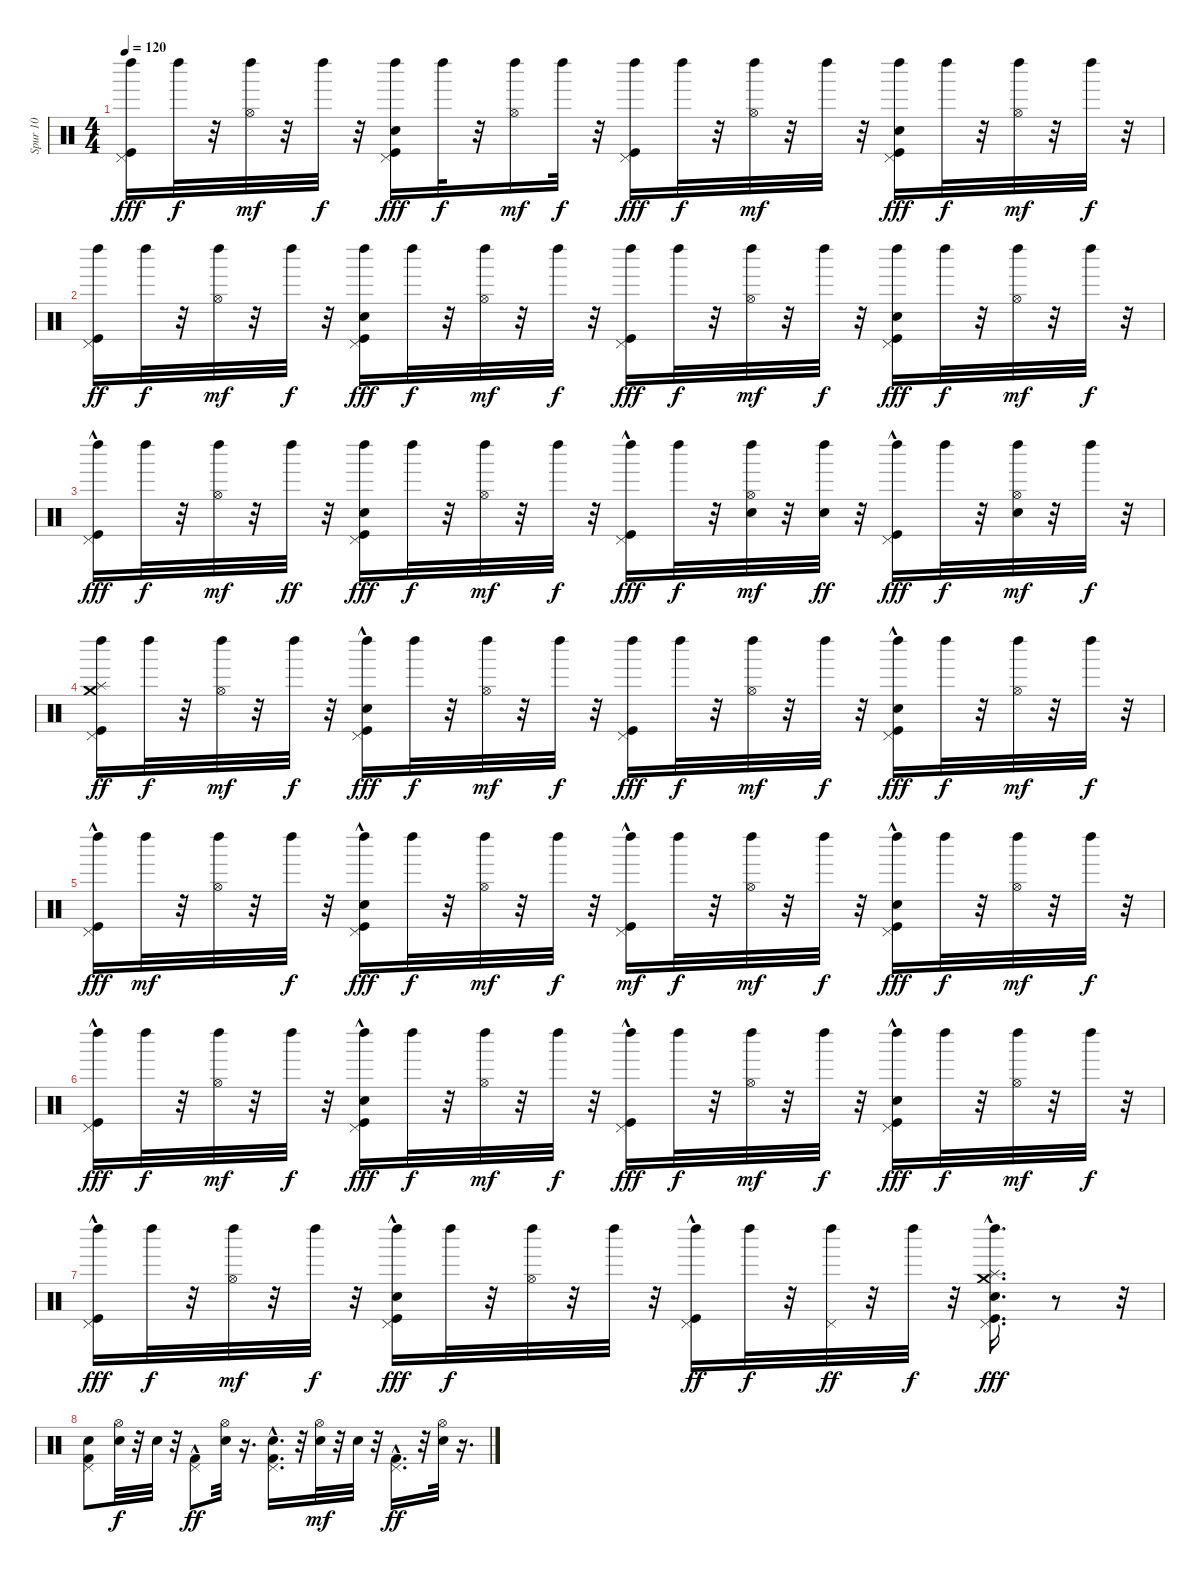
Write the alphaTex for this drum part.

\track ("Spur 10" "Spur 10") {instrument percussion}
\staff {score}
\articulation defaults
\ts (4 4)
\tempo 120
\clef neutral
\ks c
("Kick (hit)" "Pedal Hi-Hat (hit)" "Left Maraca (hit)").16{dy fff} "Left Maraca (hit)".32{dy f} r.32 ("Hi-Hat (open)" "Left Maraca (hit)").32{dy mf} r.32 "Left Maraca (hit)".32{dy f} r.32 ("Snare (hit) 2" "Kick (hit)" "Pedal Hi-Hat (hit)" "Left Maraca (hit)").16{dy fff} "Left Maraca (hit)".32{dy f} r.32 ("Hi-Hat (open)" "Left Maraca (hit)").16{dy mf} "Left Maraca (hit)".32{dy f} r.32 ("Kick (hit)" "Pedal Hi-Hat (hit)" "Left Maraca (hit)").16{dy fff} "Left Maraca (hit)".32{dy f} r.32 ("Hi-Hat (open)" "Left Maraca (hit)").32{dy mf} r.32 "Left Maraca (hit)".32 r.32 ("Snare (hit) 2" "Kick (hit)" "Pedal Hi-Hat (hit)" "Left Maraca (hit)").16{dy fff} "Left Maraca (hit)".32{dy f} r.32 ("Hi-Hat (open)" "Left Maraca (hit)").32{dy mf} r.32 "Left Maraca (hit)".32{dy f} r.32 |
("Kick (hit)" "Pedal Hi-Hat (hit)" "Left Maraca (hit)").16{dy ff} "Left Maraca (hit)".32{dy f} r.32 ("Hi-Hat (open)" "Left Maraca (hit)").32{dy mf} r.32 "Left Maraca (hit)".32{dy f} r.32 ("Snare (hit) 2" "Kick (hit)" "Pedal Hi-Hat (hit)" "Left Maraca (hit)").16{dy fff} "Left Maraca (hit)".32{dy f} r.32 ("Hi-Hat (open)" "Left Maraca (hit)").32{dy mf} r.32 "Left Maraca (hit)".32{dy f} r.32 ("Kick (hit)" "Pedal Hi-Hat (hit)" "Left Maraca (hit)").16{dy fff} "Left Maraca (hit)".32{dy f} r.32 ("Hi-Hat (open)" "Left Maraca (hit)").32{dy mf} r.32 "Left Maraca (hit)".32{dy f} r.32 ("Snare (hit) 2" "Kick (hit)" "Pedal Hi-Hat (hit)" "Left Maraca (hit)").16{dy fff} "Left Maraca (hit)".32{dy f} r.32 ("Hi-Hat (open)" "Left Maraca (hit)").32{dy mf} r.32 "Left Maraca (hit)".32{dy f} r.32 |
("Kick (hit)" "Pedal Hi-Hat (hit)"{hac} "Left Maraca (hit)").16{dy fff} "Left Maraca (hit)".32{dy f} r.32 ("Hi-Hat (open)" "Left Maraca (hit)").32{dy mf} r.32 "Left Maraca (hit)".32{dy ff} r.32 ("Snare (hit) 2" "Kick (hit)" "Pedal Hi-Hat (hit)" "Left Maraca (hit)").16{dy fff} "Left Maraca (hit)".32{dy f} r.32 ("Hi-Hat (open)" "Left Maraca (hit)").32{dy mf} r.32 "Left Maraca (hit)".32{dy f} r.32 ("Kick (hit)"{hac} "Pedal Hi-Hat (hit)"{hac} "Left Maraca (hit)").16{dy fff} "Left Maraca (hit)".32{dy f} r.32 ("Snare (hit) 2" "Hi-Hat (open)" "Left Maraca (hit)").32{dy mf} r.32 ("Snare (hit) 2" "Left Maraca (hit)").32{dy ff} r.32 ("Kick (hit)"{hac} "Pedal Hi-Hat (hit)"{hac} "Left Maraca (hit)").16{dy fff} "Left Maraca (hit)".32{dy f} r.32 ("Snare (hit) 2" "Hi-Hat (open)" "Left Maraca (hit)").32{dy mf} r.32 "Left Maraca (hit)".32{dy f} r.32 |
("Kick (hit)" "Pedal Hi-Hat (hit)" "Left Maraca (hit)" "Crash medium (hit)" "Splash (hit)").16{dy ff} "Left Maraca (hit)".32{dy f} r.32 ("Hi-Hat (open)" "Left Maraca (hit)").32{dy mf} r.32 "Left Maraca (hit)".32{dy f} r.32 ("Snare (hit) 2"{hac} "Kick (hit)"{hac} "Pedal Hi-Hat (hit)" "Left Maraca (hit)").16{dy fff} "Left Maraca (hit)".32{dy f} r.32 ("Hi-Hat (open)" "Left Maraca (hit)").32{dy mf} r.32 "Left Maraca (hit)".32{dy f} r.32 ("Kick (hit)" "Pedal Hi-Hat (hit)" "Left Maraca (hit)").16{dy fff} "Left Maraca (hit)".32{dy f} r.32 ("Hi-Hat (open)" "Left Maraca (hit)").32{dy mf} r.32 "Left Maraca (hit)".32{dy f} r.32 ("Snare (hit) 2"{hac} "Kick (hit)"{hac} "Pedal Hi-Hat (hit)"{hac} "Left Maraca (hit)").16{dy fff} "Left Maraca (hit)".32{dy f} r.32 ("Hi-Hat (open)" "Left Maraca (hit)").32{dy mf} r.32 "Left Maraca (hit)".32{dy f} r.32 |
("Kick (hit)" "Pedal Hi-Hat (hit)"{hac} "Left Maraca (hit)").16{dy fff} "Left Maraca (hit)".32{dy mf} r.32 ("Hi-Hat (open)" "Left Maraca (hit)").32 r.32 "Left Maraca (hit)".32{dy f} r.32 ("Snare (hit) 2" "Kick (hit)" "Pedal Hi-Hat (hit)"{hac} "Left Maraca (hit)").16{dy fff} "Left Maraca (hit)".32{dy f} r.32 ("Hi-Hat (open)" "Left Maraca (hit)").32{dy mf} r.32 "Left Maraca (hit)".32{dy f} r.32 ("Kick (hit)" "Pedal Hi-Hat (hit)"{hac} "Left Maraca (hit)").16{dy mf} "Left Maraca (hit)".32{dy f} r.32 ("Hi-Hat (open)" "Left Maraca (hit)").32{dy mf} r.32 "Left Maraca (hit)".32{dy f} r.32 ("Snare (hit) 2"{hac} "Kick (hit)"{hac} "Pedal Hi-Hat (hit)"{hac} "Left Maraca (hit)").16{dy fff} "Left Maraca (hit)".32{dy f} r.32 ("Hi-Hat (open)" "Left Maraca (hit)").32{dy mf} r.32 "Left Maraca (hit)".32{dy f} r.32 |
("Kick (hit)" "Pedal Hi-Hat (hit)"{hac} "Left Maraca (hit)").16{dy fff} "Left Maraca (hit)".32{dy f} r.32 ("Hi-Hat (open)" "Left Maraca (hit)").32{dy mf} r.32 "Left Maraca (hit)".32{dy f} r.32 ("Snare (hit) 2"{hac} "Kick (hit)"{hac} "Pedal Hi-Hat (hit)"{hac} "Left Maraca (hit)").16{dy fff} "Left Maraca (hit)".32{dy f} r.32 ("Hi-Hat (open)" "Left Maraca (hit)").32{dy mf} r.32 "Left Maraca (hit)".32{dy f} r.32 ("Kick (hit)" "Pedal Hi-Hat (hit)"{hac} "Left Maraca (hit)").16{dy fff} "Left Maraca (hit)".32{dy f} r.32 ("Hi-Hat (open)" "Left Maraca (hit)").32{dy mf} r.32 "Left Maraca (hit)".32{dy f} r.32 ("Snare (hit) 2" "Kick (hit)" "Pedal Hi-Hat (hit)"{hac} "Left Maraca (hit)").16{dy fff} "Left Maraca (hit)".32{dy f} r.32 ("Hi-Hat (open)" "Left Maraca (hit)").32{dy mf} r.32 "Left Maraca (hit)".32{dy f} r.32 |
("Kick (hit)" "Pedal Hi-Hat (hit)"{hac} "Left Maraca (hit)").16{dy fff} "Left Maraca (hit)".32{dy f} r.32 ("Hi-Hat (open)" "Left Maraca (hit)").32{dy mf} r.32 "Left Maraca (hit)".32{dy f} r.32 ("Snare (hit) 2" "Kick (hit)" "Pedal Hi-Hat (hit)"{hac} "Left Maraca (hit)").16{dy fff} "Left Maraca (hit)".32{dy f} r.32 ("Hi-Hat (open)" "Left Maraca (hit)").32 r.32 "Left Maraca (hit)".32 r.32 ("Kick (hit)"{hac} "Pedal Hi-Hat (hit)" "Left Maraca (hit)").16{dy ff} "Left Maraca (hit)".32{dy f} r.32 ("Pedal Hi-Hat (hit)" "Left Maraca (hit)").32{dy ff} r.32 "Left Maraca (hit)".32{dy f} r.32 ("Snare (hit) 2"{hac} "Kick (hit)"{hac} "Pedal Hi-Hat (hit)" "Left Maraca (hit)" "Crash medium (hit)" "Splash (hit)").16{d dy fff} r.8 r.32 |
("Electric Snare (hit)" "Kick (hit) 2" "Pedal Hi-Hat (hit)").8 ("Electric Snare (hit)" "Hi-Hat (open)").32{dy f} r.32 "Electric Snare (hit)".32 r.32 ("Kick (hit) 2"{hac} "Pedal Hi-Hat (hit)").8{dy ff} ("Electric Snare (hit)" "Hi-Hat (open)").32 r.16{d} ("Electric Snare (hit)" "Kick (hit) 2" "Pedal Hi-Hat (hit)"{hac}).16{d} r.32 ("Electric Snare (hit)" "Hi-Hat (open)").32{dy mf} r.32 "Electric Snare (hit)".32 r.32 ("Kick (hit) 2"{hac} "Pedal Hi-Hat (hit)"{hac}).16{d dy ff} r.32 ("Electric Snare (hit)" "Hi-Hat (open)").32 r.16{d}
